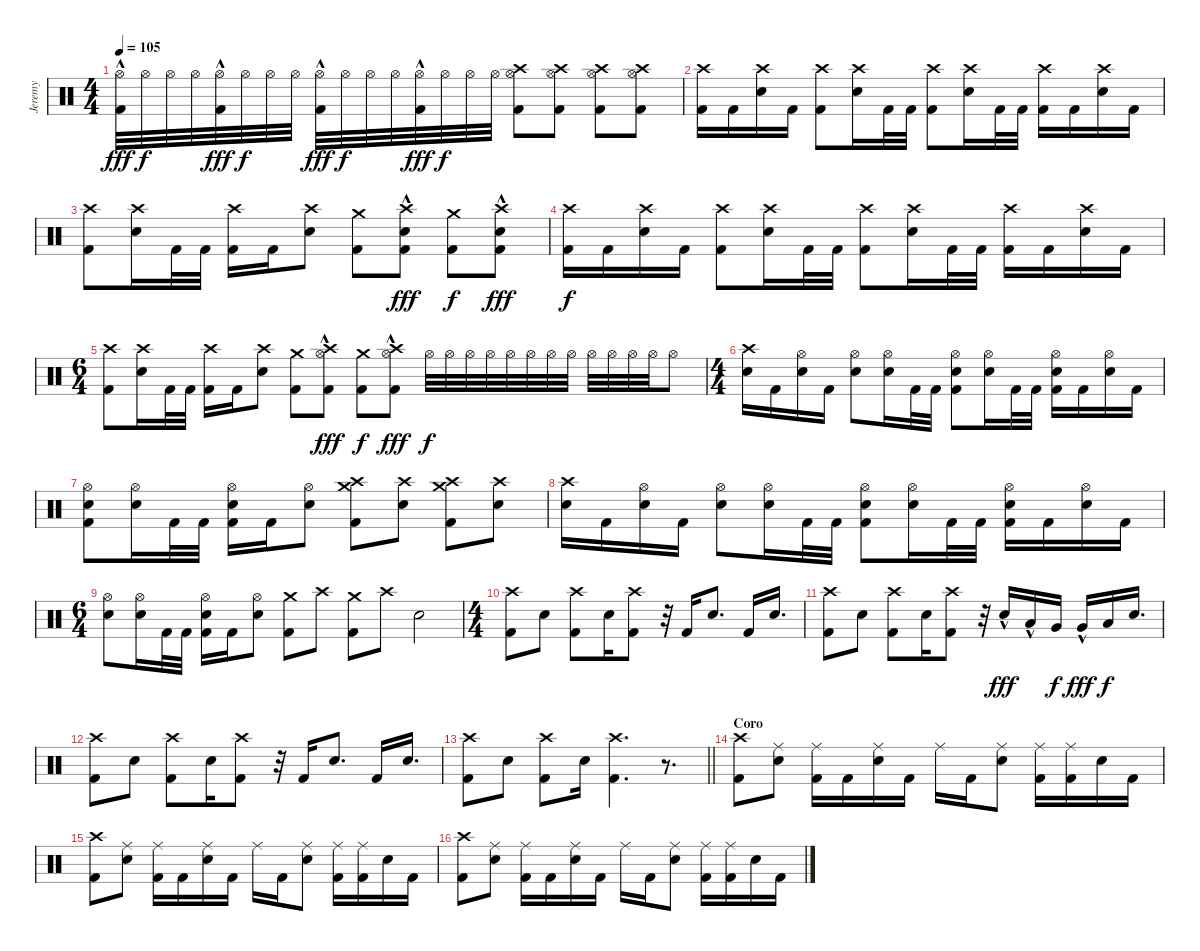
\track ("Jeremy" "Jeremy") {instrument percussion}
\staff {score}
\articulation defaults
\ts (4 4)
\tempo 105
\clef neutral
\ks c
("Hi-Hat (open)"{hac} "Kick (hit) 2").32{dy fff} "Hi-Hat (open)".32{dy f} "Hi-Hat (open)".32 "Hi-Hat (open)".32 ("Hi-Hat (open)"{hac} "Kick (hit) 2").32{dy fff} "Hi-Hat (open)".32{dy f} "Hi-Hat (open)".32 "Hi-Hat (open)".32 ("Hi-Hat (open)"{hac} "Kick (hit) 2").32{dy fff} "Hi-Hat (open)".32{dy f} "Hi-Hat (open)".32 "Hi-Hat (open)".32 ("Hi-Hat (open)"{hac} "Kick (hit) 2").32{dy fff} "Hi-Hat (open)".32{dy f} "Hi-Hat (open)".32 "Hi-Hat (open)".32 ("Crash high (hit)" "Hi-Hat (open)" "Kick (hit) 2").8 ("Crash high (hit)" "Hi-Hat (open)" "Kick (hit) 2").8 ("Crash high (hit)" "Hi-Hat (open)" "Kick (hit) 2").8 ("Crash high (hit)" "Hi-Hat (open)" "Kick (hit) 2").8 |
("Crash high (hit)" "Kick (hit) 2").16 "Kick (hit) 2".16 ("Crash high (hit)" "Snare (hit) 2").16 "Kick (hit) 2".16 ("Crash high (hit)" "Kick (hit) 2").8 ("Crash high (hit)" "Snare (hit) 2").16 "Kick (hit) 2".32 "Kick (hit) 2".32 ("Crash high (hit)" "Kick (hit) 2").8 ("Crash high (hit)" "Snare (hit) 2").16 "Kick (hit) 2".32 "Kick (hit) 2".32 ("Crash high (hit)" "Kick (hit) 2").16 "Kick (hit) 2".16 ("Crash high (hit)" "Snare (hit) 2").16 "Kick (hit) 2".16 |
("Crash high (hit)" "Kick (hit) 2").8 ("Crash high (hit)" "Snare (hit) 2").16 "Kick (hit) 2".32 "Kick (hit) 2".32 ("Crash high (hit)" "Kick (hit) 2").16 "Kick (hit) 2".16 ("Crash high (hit)" "Snare (hit) 2").8 ("Crash medium (hit)" "Kick (hit) 2").8 ("Crash high (hit)"{hac} "Snare (hit) 2" "Kick (hit) 2").8{dy fff} ("Crash medium (hit)" "Kick (hit) 2").8{dy f} ("Crash high (hit)"{hac} "Snare (hit) 2" "Kick (hit) 2").8{dy fff} |
("Crash high (hit)" "Kick (hit) 2").16{dy f} "Kick (hit) 2".16 ("Crash high (hit)" "Snare (hit) 2").16 "Kick (hit) 2".16 ("Crash high (hit)" "Kick (hit) 2").8 ("Crash high (hit)" "Snare (hit) 2").16 "Kick (hit) 2".32 "Kick (hit) 2".32 ("Crash high (hit)" "Kick (hit) 2").8 ("Crash high (hit)" "Snare (hit) 2").16 "Kick (hit) 2".32 "Kick (hit) 2".32 ("Crash high (hit)" "Kick (hit) 2").16 "Kick (hit) 2".16 ("Crash high (hit)" "Snare (hit) 2").16 "Kick (hit) 2".16 |
\ts (6 4)
("Crash high (hit)" "Kick (hit) 2").8 ("Crash high (hit)" "Snare (hit) 2").16 "Kick (hit) 2".32 "Kick (hit) 2".32 ("Crash high (hit)" "Kick (hit) 2").16 "Kick (hit) 2".16 ("Crash high (hit)" "Snare (hit) 2").8 ("Crash medium (hit)" "Kick (hit) 2").8 ("Crash high (hit)"{hac} "Hi-Hat (open)" "Kick (hit) 2").8{dy fff} ("Crash medium (hit)" "Kick (hit) 2").8{dy f} ("Crash high (hit)"{hac} "Hi-Hat (open)" "Kick (hit) 2").8{dy fff} "Hi-Hat (open)".32{dy f} "Hi-Hat (open)".32 "Hi-Hat (open)".32 "Hi-Hat (open)".32 "Hi-Hat (open)".32 "Hi-Hat (open)".32 "Hi-Hat (open)".32 "Hi-Hat (open)".32 "Hi-Hat (open)".32 "Hi-Hat (open)".32 "Hi-Hat (open)".32 "Hi-Hat (open)".32 "Hi-Hat (open)".8 |
\ts (4 4)
("Crash high (hit)" "Snare (hit) 2").16 "Kick (hit) 2".16 ("Hi-Hat (open)" "Snare (hit) 2").16 "Kick (hit) 2".16 ("Hi-Hat (open)" "Snare (hit) 2").8 ("Hi-Hat (open)" "Snare (hit) 2").16 "Kick (hit) 2".32 "Kick (hit) 2".32 ("Hi-Hat (open)" "Snare (hit) 2" "Kick (hit) 2").8 ("Hi-Hat (open)" "Snare (hit) 2").16 "Kick (hit) 2".32 "Kick (hit) 2".32 ("Hi-Hat (open)" "Snare (hit) 2" "Kick (hit) 2").16 "Kick (hit) 2".16 ("Hi-Hat (open)" "Snare (hit) 2").16 "Kick (hit) 2".16 |
("Hi-Hat (open)" "Snare (hit) 2" "Kick (hit) 2").8 ("Hi-Hat (open)" "Snare (hit) 2").16 "Kick (hit) 2".32 "Kick (hit) 2".32 ("Hi-Hat (open)" "Snare (hit) 2" "Kick (hit) 2").16 "Kick (hit) 2".16 ("Hi-Hat (open)" "Snare (hit) 2").8 ("Crash high (hit)" "Crash medium (hit)" "Kick (hit) 2").8 ("Crash high (hit)" "Snare (hit) 2").8 ("Crash high (hit)" "Crash medium (hit)" "Kick (hit) 2").8 ("Crash high (hit)" "Snare (hit) 2").8 |
("Crash high (hit)" "Snare (hit) 2").16 "Kick (hit) 2".16 ("Hi-Hat (open)" "Snare (hit) 2").16 "Kick (hit) 2".16 ("Hi-Hat (open)" "Snare (hit) 2").8 ("Hi-Hat (open)" "Snare (hit) 2").16 "Kick (hit) 2".32 "Kick (hit) 2".32 ("Hi-Hat (open)" "Snare (hit) 2" "Kick (hit) 2").8 ("Hi-Hat (open)" "Snare (hit) 2").16 "Kick (hit) 2".32 "Kick (hit) 2".32 ("Hi-Hat (open)" "Snare (hit) 2" "Kick (hit) 2").16 "Kick (hit) 2".16 ("Hi-Hat (open)" "Snare (hit) 2").16 "Kick (hit) 2".16 |
\ts (6 4)
("Hi-Hat (open)" "Snare (hit) 2").8 ("Hi-Hat (open)" "Snare (hit) 2").16 "Kick (hit) 2".32 "Kick (hit) 2".32 ("Hi-Hat (open)" "Snare (hit) 2" "Kick (hit) 2").16 "Kick (hit) 2".16 ("Hi-Hat (open)" "Snare (hit) 2").8 ("Crash medium (hit)" "Kick (hit) 2").8 "Crash high (hit)".8 ("Crash medium (hit)" "Kick (hit) 2").8 "Crash high (hit)".8 "Snare (hit) 2".2 |
\ts (4 4)
("Crash high (hit)" "Kick (hit) 2").8 "Snare (hit) 2".8 ("Crash high (hit)" "Kick (hit) 2").8 "Snare (hit) 2".16 ("Crash high (hit)" "Kick (hit) 2").8 r.32 "Kick (hit) 2".16 "Snare (hit) 2".8{d} "Kick (hit) 2".16 "Snare (hit) 2".16{d} |
("Crash high (hit)" "Kick (hit) 2").8 "Snare (hit) 2".8 ("Crash high (hit)" "Kick (hit) 2").8 "Snare (hit) 2".16 ("Crash high (hit)" "Kick (hit) 2").8 r.32 "Snare (hit) 2"{hac}.16{dy fff} "Low Tom (hit)"{hac}.16 "Very Low Tom (hit)".16{dy f} "Very Low Tom (hit)"{hac}.16{dy fff} "Low Floor Tom (hit)".16{dy f} "Snare (hit) 2".16{d} |
("Crash high (hit)" "Kick (hit) 2").8 "Snare (hit) 2".8 ("Crash high (hit)" "Kick (hit) 2").8 "Snare (hit) 2".16 ("Crash high (hit)" "Kick (hit) 2").8 r.32 "Kick (hit) 2".16 "Snare (hit) 2".8{d} "Kick (hit) 2".16 "Snare (hit) 2".16{d} |
\barLineRight lightlight
("Crash high (hit)" "Kick (hit) 2").8 "Snare (hit) 2".8 ("Crash high (hit)" "Kick (hit) 2").8 "Snare (hit) 2".16 ("Crash high (hit)" "Kick (hit) 2").4{d} r.8{d} |
\section ("" "Coro")
("Crash high (hit)" "Kick (hit) 2").8 ("Ride (middle)" "Snare (hit) 2").8 ("Ride (middle)" "Kick (hit) 2").16 "Kick (hit) 2".16 ("Ride (middle)" "Snare (hit) 2").16 "Kick (hit) 2".16 "Ride (middle)".16 "Kick (hit) 2".16 ("Ride (middle)" "Snare (hit) 2").8 ("Ride (middle)" "Kick (hit) 2").16 ("Ride (middle)" "Kick (hit) 2").16 "Snare (hit) 2".16 "Kick (hit) 2".16 |
("Crash high (hit)" "Kick (hit) 2").8 ("Ride (middle)" "Snare (hit) 2").8 ("Ride (middle)" "Kick (hit) 2").16 "Kick (hit) 2".16 ("Ride (middle)" "Snare (hit) 2").16 "Kick (hit) 2".16 "Ride (middle)".16 "Kick (hit) 2".16 ("Ride (middle)" "Snare (hit) 2").8 ("Ride (middle)" "Kick (hit) 2").16 ("Ride (middle)" "Kick (hit) 2").16 "Snare (hit) 2".16 "Kick (hit) 2".16 |
("Crash high (hit)" "Kick (hit) 2").8 ("Ride (middle)" "Snare (hit) 2").8 ("Ride (middle)" "Kick (hit) 2").16 "Kick (hit) 2".16 ("Ride (middle)" "Snare (hit) 2").16 "Kick (hit) 2".16 "Ride (middle)".16 "Kick (hit) 2".16 ("Ride (middle)" "Snare (hit) 2").8 ("Ride (middle)" "Kick (hit) 2").16 ("Ride (middle)" "Kick (hit) 2").16 "Snare (hit) 2".16 "Kick (hit) 2".16
